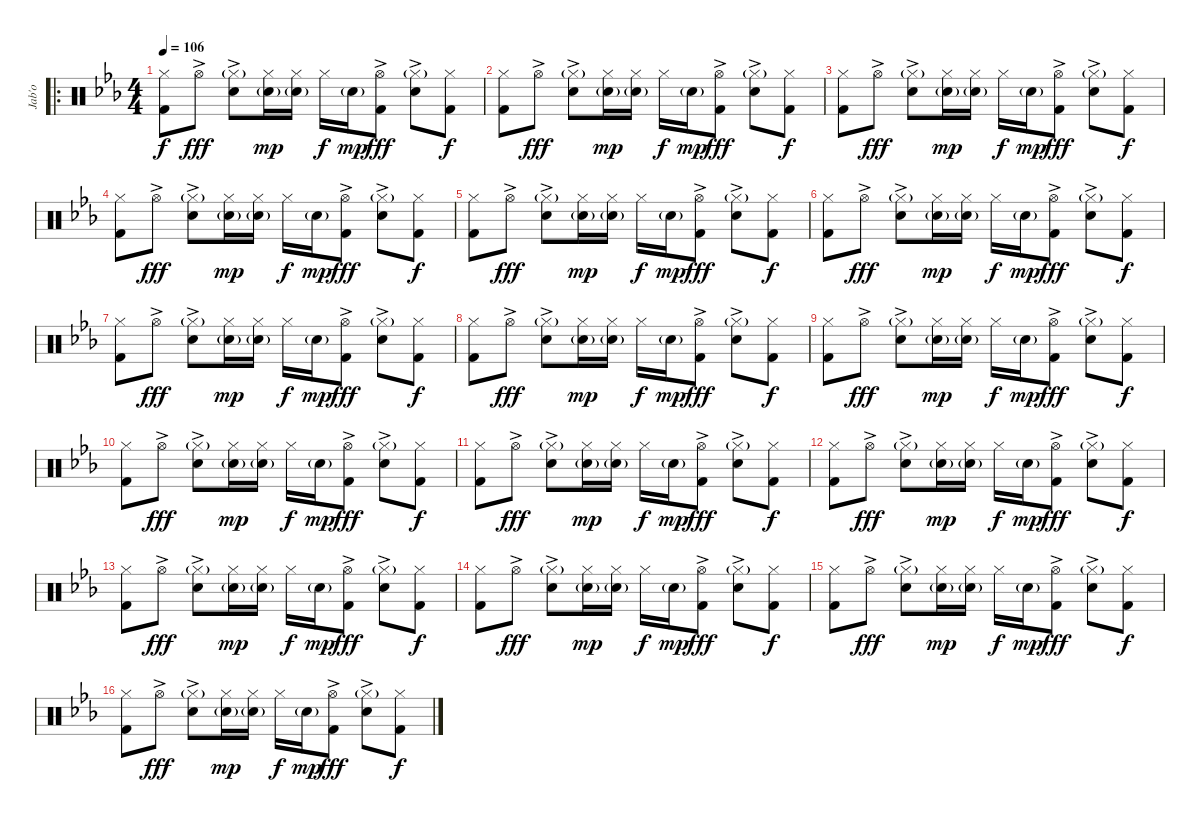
\track ("Jab'o" "Jab'o") {instrument percussion}
\staff {score}
\articulation defaults
\ro
\ts (4 4)
\tempo 106
\clef neutral
\ks eb
("Hi-Hat (closed)" "Kick (hit) 2").8{dy f} "Hi-Hat (open)"{ac}.8{dy fff} ("Hi-Hat (closed)"{g} "Snare (hit) 2"{ac}).8 ("Hi-Hat (closed)" "Snare (hit) 2"{g}).16{dy mp} ("Hi-Hat (closed)" "Snare (hit) 2"{g}).16 "Hi-Hat (closed)".16{dy f} "Snare (hit) 2"{g}.16{dy mp} ("Hi-Hat (open)"{ac} "Kick (hit) 2"{ac}).8{dy fff} ("Hi-Hat (closed)"{g} "Snare (hit) 2"{ac}).8 ("Hi-Hat (closed)" "Kick (hit) 2").8{dy f} |
("Hi-Hat (closed)" "Kick (hit) 2").8 "Hi-Hat (open)"{ac}.8{dy fff} ("Hi-Hat (closed)"{g} "Snare (hit) 2"{ac}).8 ("Hi-Hat (closed)" "Snare (hit) 2"{g}).16{dy mp} ("Hi-Hat (closed)" "Snare (hit) 2"{g}).16 "Hi-Hat (closed)".16{dy f} "Snare (hit) 2"{g}.16{dy mp} ("Hi-Hat (open)"{ac} "Kick (hit) 2"{ac}).8{dy fff} ("Hi-Hat (closed)"{g} "Snare (hit) 2"{ac}).8 ("Hi-Hat (closed)" "Kick (hit) 2").8{dy f} |
("Hi-Hat (closed)" "Kick (hit) 2").8 "Hi-Hat (open)"{ac}.8{dy fff} ("Hi-Hat (closed)"{g} "Snare (hit) 2"{ac}).8 ("Hi-Hat (closed)" "Snare (hit) 2"{g}).16{dy mp} ("Hi-Hat (closed)" "Snare (hit) 2"{g}).16 "Hi-Hat (closed)".16{dy f} "Snare (hit) 2"{g}.16{dy mp} ("Hi-Hat (open)"{ac} "Kick (hit) 2"{ac}).8{dy fff} ("Hi-Hat (closed)"{g} "Snare (hit) 2"{ac}).8 ("Hi-Hat (closed)" "Kick (hit) 2").8{dy f} |
("Hi-Hat (closed)" "Kick (hit) 2").8 "Hi-Hat (open)"{ac}.8{dy fff} ("Hi-Hat (closed)"{g} "Snare (hit) 2"{ac}).8 ("Hi-Hat (closed)" "Snare (hit) 2"{g}).16{dy mp} ("Hi-Hat (closed)" "Snare (hit) 2"{g}).16 "Hi-Hat (closed)".16{dy f} "Snare (hit) 2"{g}.16{dy mp} ("Hi-Hat (open)"{ac} "Kick (hit) 2"{ac}).8{dy fff} ("Hi-Hat (closed)"{g} "Snare (hit) 2"{ac}).8 ("Hi-Hat (closed)" "Kick (hit) 2").8{dy f} |
("Hi-Hat (closed)" "Kick (hit) 2").8 "Hi-Hat (open)"{ac}.8{dy fff} ("Hi-Hat (closed)"{g} "Snare (hit) 2"{ac}).8 ("Hi-Hat (closed)" "Snare (hit) 2"{g}).16{dy mp} ("Hi-Hat (closed)" "Snare (hit) 2"{g}).16 "Hi-Hat (closed)".16{dy f} "Snare (hit) 2"{g}.16{dy mp} ("Hi-Hat (open)"{ac} "Kick (hit) 2"{ac}).8{dy fff} ("Hi-Hat (closed)"{g} "Snare (hit) 2"{ac}).8 ("Hi-Hat (closed)" "Kick (hit) 2").8{dy f} |
("Hi-Hat (closed)" "Kick (hit) 2").8 "Hi-Hat (open)"{ac}.8{dy fff} ("Hi-Hat (closed)"{g} "Snare (hit) 2"{ac}).8 ("Hi-Hat (closed)" "Snare (hit) 2"{g}).16{dy mp} ("Hi-Hat (closed)" "Snare (hit) 2"{g}).16 "Hi-Hat (closed)".16{dy f} "Snare (hit) 2"{g}.16{dy mp} ("Hi-Hat (open)"{ac} "Kick (hit) 2"{ac}).8{dy fff} ("Hi-Hat (closed)"{g} "Snare (hit) 2"{ac}).8 ("Hi-Hat (closed)" "Kick (hit) 2").8{dy f} |
("Hi-Hat (closed)" "Kick (hit) 2").8 "Hi-Hat (open)"{ac}.8{dy fff} ("Hi-Hat (closed)"{g} "Snare (hit) 2"{ac}).8 ("Hi-Hat (closed)" "Snare (hit) 2"{g}).16{dy mp} ("Hi-Hat (closed)" "Snare (hit) 2"{g}).16 "Hi-Hat (closed)".16{dy f} "Snare (hit) 2"{g}.16{dy mp} ("Hi-Hat (open)"{ac} "Kick (hit) 2"{ac}).8{dy fff} ("Hi-Hat (closed)"{g} "Snare (hit) 2"{ac}).8 ("Hi-Hat (closed)" "Kick (hit) 2").8{dy f} |
("Hi-Hat (closed)" "Kick (hit) 2").8 "Hi-Hat (open)"{ac}.8{dy fff} ("Hi-Hat (closed)"{g} "Snare (hit) 2"{ac}).8 ("Hi-Hat (closed)" "Snare (hit) 2"{g}).16{dy mp} ("Hi-Hat (closed)" "Snare (hit) 2"{g}).16 "Hi-Hat (closed)".16{dy f} "Snare (hit) 2"{g}.16{dy mp} ("Hi-Hat (open)"{ac} "Kick (hit) 2"{ac}).8{dy fff} ("Hi-Hat (closed)"{g} "Snare (hit) 2"{ac}).8 ("Hi-Hat (closed)" "Kick (hit) 2").8{dy f} |
("Hi-Hat (closed)" "Kick (hit) 2").8 "Hi-Hat (open)"{ac}.8{dy fff} ("Hi-Hat (closed)"{g} "Snare (hit) 2"{ac}).8 ("Hi-Hat (closed)" "Snare (hit) 2"{g}).16{dy mp} ("Hi-Hat (closed)" "Snare (hit) 2"{g}).16 "Hi-Hat (closed)".16{dy f} "Snare (hit) 2"{g}.16{dy mp} ("Hi-Hat (open)"{ac} "Kick (hit) 2"{ac}).8{dy fff} ("Hi-Hat (closed)"{g} "Snare (hit) 2"{ac}).8 ("Hi-Hat (closed)" "Kick (hit) 2").8{dy f} |
("Hi-Hat (closed)" "Kick (hit) 2").8 "Hi-Hat (open)"{ac}.8{dy fff} ("Hi-Hat (closed)"{g} "Snare (hit) 2"{ac}).8 ("Hi-Hat (closed)" "Snare (hit) 2"{g}).16{dy mp} ("Hi-Hat (closed)" "Snare (hit) 2"{g}).16 "Hi-Hat (closed)".16{dy f} "Snare (hit) 2"{g}.16{dy mp} ("Hi-Hat (open)"{ac} "Kick (hit) 2"{ac}).8{dy fff} ("Hi-Hat (closed)"{g} "Snare (hit) 2"{ac}).8 ("Hi-Hat (closed)" "Kick (hit) 2").8{dy f} |
("Hi-Hat (closed)" "Kick (hit) 2").8 "Hi-Hat (open)"{ac}.8{dy fff} ("Hi-Hat (closed)"{g} "Snare (hit) 2"{ac}).8 ("Hi-Hat (closed)" "Snare (hit) 2"{g}).16{dy mp} ("Hi-Hat (closed)" "Snare (hit) 2"{g}).16 "Hi-Hat (closed)".16{dy f} "Snare (hit) 2"{g}.16{dy mp} ("Hi-Hat (open)"{ac} "Kick (hit) 2"{ac}).8{dy fff} ("Hi-Hat (closed)"{g} "Snare (hit) 2"{ac}).8 ("Hi-Hat (closed)" "Kick (hit) 2").8{dy f} |
("Hi-Hat (closed)" "Kick (hit) 2").8 "Hi-Hat (open)"{ac}.8{dy fff} ("Hi-Hat (closed)"{g} "Snare (hit) 2"{ac}).8 ("Hi-Hat (closed)" "Snare (hit) 2"{g}).16{dy mp} ("Hi-Hat (closed)" "Snare (hit) 2"{g}).16 "Hi-Hat (closed)".16{dy f} "Snare (hit) 2"{g}.16{dy mp} ("Hi-Hat (open)"{ac} "Kick (hit) 2"{ac}).8{dy fff} ("Hi-Hat (closed)"{g} "Snare (hit) 2"{ac}).8 ("Hi-Hat (closed)" "Kick (hit) 2").8{dy f} |
("Hi-Hat (closed)" "Kick (hit) 2").8 "Hi-Hat (open)"{ac}.8{dy fff} ("Hi-Hat (closed)"{g} "Snare (hit) 2"{ac}).8 ("Hi-Hat (closed)" "Snare (hit) 2"{g}).16{dy mp} ("Hi-Hat (closed)" "Snare (hit) 2"{g}).16 "Hi-Hat (closed)".16{dy f} "Snare (hit) 2"{g}.16{dy mp} ("Hi-Hat (open)"{ac} "Kick (hit) 2"{ac}).8{dy fff} ("Hi-Hat (closed)"{g} "Snare (hit) 2"{ac}).8 ("Hi-Hat (closed)" "Kick (hit) 2").8{dy f} |
("Hi-Hat (closed)" "Kick (hit) 2").8 "Hi-Hat (open)"{ac}.8{dy fff} ("Hi-Hat (closed)"{g} "Snare (hit) 2"{ac}).8 ("Hi-Hat (closed)" "Snare (hit) 2"{g}).16{dy mp} ("Hi-Hat (closed)" "Snare (hit) 2"{g}).16 "Hi-Hat (closed)".16{dy f} "Snare (hit) 2"{g}.16{dy mp} ("Hi-Hat (open)"{ac} "Kick (hit) 2"{ac}).8{dy fff} ("Hi-Hat (closed)"{g} "Snare (hit) 2"{ac}).8 ("Hi-Hat (closed)" "Kick (hit) 2").8{dy f} |
("Hi-Hat (closed)" "Kick (hit) 2").8 "Hi-Hat (open)"{ac}.8{dy fff} ("Hi-Hat (closed)"{g} "Snare (hit) 2"{ac}).8 ("Hi-Hat (closed)" "Snare (hit) 2"{g}).16{dy mp} ("Hi-Hat (closed)" "Snare (hit) 2"{g}).16 "Hi-Hat (closed)".16{dy f} "Snare (hit) 2"{g}.16{dy mp} ("Hi-Hat (open)"{ac} "Kick (hit) 2"{ac}).8{dy fff} ("Hi-Hat (closed)"{g} "Snare (hit) 2"{ac}).8 ("Hi-Hat (closed)" "Kick (hit) 2").8{dy f} |
("Hi-Hat (closed)" "Kick (hit) 2").8 "Hi-Hat (open)"{ac}.8{dy fff} ("Hi-Hat (closed)"{g} "Snare (hit) 2"{ac}).8 ("Hi-Hat (closed)" "Snare (hit) 2"{g}).16{dy mp} ("Hi-Hat (closed)" "Snare (hit) 2"{g}).16 "Hi-Hat (closed)".16{dy f} "Snare (hit) 2"{g}.16{dy mp} ("Hi-Hat (open)"{ac} "Kick (hit) 2"{ac}).8{dy fff} ("Hi-Hat (closed)"{g} "Snare (hit) 2"{ac}).8 ("Hi-Hat (closed)" "Kick (hit) 2").8{dy f}
